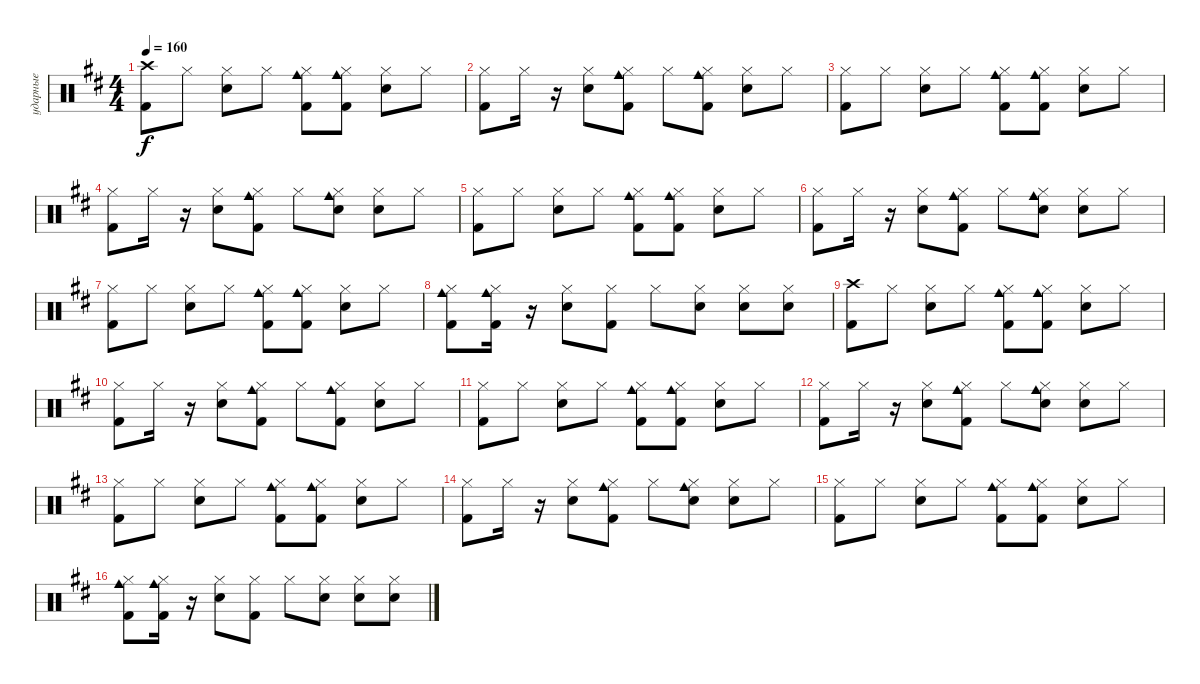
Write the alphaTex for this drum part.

\track ("ударные" "ударные") {instrument percussion}
\staff {score}
\articulation defaults
\ts (4 4)
\tempo 160
\clef neutral
\ks bminor
("Crash high (hit)" "Kick (hit) 2").8{dy f} "Hi-Hat (closed)".8 ("Hi-Hat (closed)" "Snare (hit) 2").8 "Hi-Hat (closed)".8 ("Hi-Hat (closed)" "Cowbell medium (hit)" "Kick (hit) 2").8 ("Hi-Hat (closed)" "Cowbell medium (hit)" "Kick (hit) 2").8 ("Hi-Hat (closed)" "Snare (hit) 2").8 "Hi-Hat (closed)".8 |
("Hi-Hat (closed)" "Kick (hit) 2").8 "Hi-Hat (closed)".16 r.16 ("Hi-Hat (closed)" "Snare (hit) 2").8 ("Hi-Hat (closed)" "Kick (hit) 2" "Cowbell medium (hit)").8 "Hi-Hat (closed)".8 ("Hi-Hat (closed)" "Kick (hit) 2" "Cowbell medium (hit)").8 ("Hi-Hat (closed)" "Snare (hit) 2").8 "Hi-Hat (closed)".8 |
("Hi-Hat (closed)" "Kick (hit) 2").8 "Hi-Hat (closed)".8 ("Hi-Hat (closed)" "Snare (hit) 2").8 "Hi-Hat (closed)".8 ("Hi-Hat (closed)" "Cowbell medium (hit)" "Kick (hit) 2").8 ("Hi-Hat (closed)" "Cowbell medium (hit)" "Kick (hit) 2").8 ("Hi-Hat (closed)" "Snare (hit) 2").8 "Hi-Hat (closed)".8 |
("Hi-Hat (closed)" "Kick (hit) 2").8 "Hi-Hat (closed)".16 r.16 ("Hi-Hat (closed)" "Snare (hit) 2").8 ("Hi-Hat (closed)" "Kick (hit) 2" "Cowbell medium (hit)").8 "Hi-Hat (closed)".8 ("Hi-Hat (closed)" "Hand Clap (hit)" "Cowbell medium (hit)").8 ("Hi-Hat (closed)" "Snare (hit) 2").8 "Hi-Hat (closed)".8 |
("Hi-Hat (closed)" "Kick (hit) 2").8 "Hi-Hat (closed)".8 ("Hi-Hat (closed)" "Snare (hit) 2").8 "Hi-Hat (closed)".8 ("Hi-Hat (closed)" "Cowbell medium (hit)" "Kick (hit) 2").8 ("Hi-Hat (closed)" "Cowbell medium (hit)" "Kick (hit) 2").8 ("Hi-Hat (closed)" "Snare (hit) 2").8 "Hi-Hat (closed)".8 |
("Hi-Hat (closed)" "Kick (hit) 2").8 "Hi-Hat (closed)".16 r.16 ("Hi-Hat (closed)" "Snare (hit) 2").8 ("Hi-Hat (closed)" "Kick (hit) 2" "Cowbell medium (hit)").8 "Hi-Hat (closed)".8 ("Hi-Hat (closed)" "Hand Clap (hit)" "Cowbell medium (hit)").8 ("Hi-Hat (closed)" "Snare (hit) 2").8 "Hi-Hat (closed)".8 |
("Hi-Hat (closed)" "Kick (hit) 2").8 "Hi-Hat (closed)".8 ("Hi-Hat (closed)" "Snare (hit) 2").8 "Hi-Hat (closed)".8 ("Hi-Hat (closed)" "Cowbell medium (hit)" "Kick (hit) 2").8 ("Hi-Hat (closed)" "Cowbell medium (hit)" "Kick (hit) 2").8 ("Hi-Hat (closed)" "Snare (hit) 2").8 "Hi-Hat (closed)".8 |
("Cowbell medium (hit)" "Hi-Hat (closed)" "Kick (hit) 2").8 ("Cowbell medium (hit)" "Kick (hit) 2" "Hi-Hat (closed)").16 r.16 ("Hi-Hat (closed)" "Snare (hit) 2").8 ("Hi-Hat (closed)" "Kick (hit) 2").8 "Hi-Hat (closed)".8 ("Hi-Hat (closed)" "Snare (hit) 2").8 ("Hi-Hat (closed)" "Snare (hit) 2").8 ("Snare (hit) 2" "Hi-Hat (closed)").8 |
("Crash high (hit)" "Kick (hit) 2").8 "Hi-Hat (closed)".8 ("Hi-Hat (closed)" "Snare (hit) 2").8 "Hi-Hat (closed)".8 ("Hi-Hat (closed)" "Cowbell medium (hit)" "Kick (hit) 2").8 ("Hi-Hat (closed)" "Cowbell medium (hit)" "Kick (hit) 2").8 ("Hi-Hat (closed)" "Snare (hit) 2").8 "Hi-Hat (closed)".8 |
("Hi-Hat (closed)" "Kick (hit) 2").8 "Hi-Hat (closed)".16 r.16 ("Hi-Hat (closed)" "Snare (hit) 2").8 ("Hi-Hat (closed)" "Kick (hit) 2" "Cowbell medium (hit)").8 "Hi-Hat (closed)".8 ("Hi-Hat (closed)" "Kick (hit) 2" "Cowbell medium (hit)").8 ("Hi-Hat (closed)" "Snare (hit) 2").8 "Hi-Hat (closed)".8 |
("Hi-Hat (closed)" "Kick (hit) 2").8 "Hi-Hat (closed)".8 ("Hi-Hat (closed)" "Snare (hit) 2").8 "Hi-Hat (closed)".8 ("Hi-Hat (closed)" "Cowbell medium (hit)" "Kick (hit) 2").8 ("Hi-Hat (closed)" "Cowbell medium (hit)" "Kick (hit) 2").8 ("Hi-Hat (closed)" "Snare (hit) 2").8 "Hi-Hat (closed)".8 |
("Hi-Hat (closed)" "Kick (hit) 2").8 "Hi-Hat (closed)".16 r.16 ("Hi-Hat (closed)" "Snare (hit) 2").8 ("Hi-Hat (closed)" "Kick (hit) 2" "Cowbell medium (hit)").8 "Hi-Hat (closed)".8 ("Hi-Hat (closed)" "Hand Clap (hit)" "Cowbell medium (hit)").8 ("Hi-Hat (closed)" "Snare (hit) 2").8 "Hi-Hat (closed)".8 |
("Hi-Hat (closed)" "Kick (hit) 2").8 "Hi-Hat (closed)".8 ("Hi-Hat (closed)" "Snare (hit) 2").8 "Hi-Hat (closed)".8 ("Hi-Hat (closed)" "Cowbell medium (hit)" "Kick (hit) 2").8 ("Hi-Hat (closed)" "Cowbell medium (hit)" "Kick (hit) 2").8 ("Hi-Hat (closed)" "Snare (hit) 2").8 "Hi-Hat (closed)".8 |
("Hi-Hat (closed)" "Kick (hit) 2").8 "Hi-Hat (closed)".16 r.16 ("Hi-Hat (closed)" "Snare (hit) 2").8 ("Hi-Hat (closed)" "Kick (hit) 2" "Cowbell medium (hit)").8 "Hi-Hat (closed)".8 ("Hi-Hat (closed)" "Hand Clap (hit)" "Cowbell medium (hit)").8 ("Hi-Hat (closed)" "Snare (hit) 2").8 "Hi-Hat (closed)".8 |
("Hi-Hat (closed)" "Kick (hit) 2").8 "Hi-Hat (closed)".8 ("Hi-Hat (closed)" "Snare (hit) 2").8 "Hi-Hat (closed)".8 ("Hi-Hat (closed)" "Cowbell medium (hit)" "Kick (hit) 2").8 ("Hi-Hat (closed)" "Cowbell medium (hit)" "Kick (hit) 2").8 ("Hi-Hat (closed)" "Snare (hit) 2").8 "Hi-Hat (closed)".8 |
("Cowbell medium (hit)" "Hi-Hat (closed)" "Kick (hit) 2").8 ("Cowbell medium (hit)" "Kick (hit) 2" "Hi-Hat (closed)").16 r.16 ("Hi-Hat (closed)" "Snare (hit) 2").8 ("Hi-Hat (closed)" "Kick (hit) 2").8 "Hi-Hat (closed)".8 ("Hi-Hat (closed)" "Snare (hit) 2").8 ("Hi-Hat (closed)" "Snare (hit) 2").8 ("Snare (hit) 2" "Hi-Hat (closed)").8
